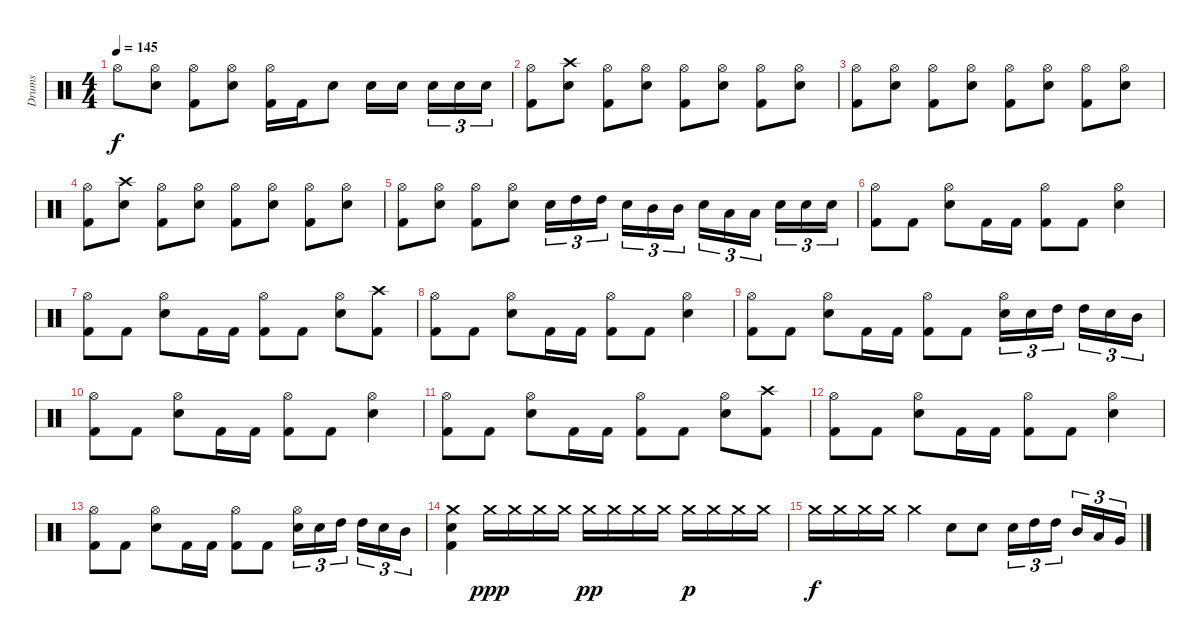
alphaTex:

\track ("Drums" "Drums") {instrument percussion}
\staff {score}
\articulation defaults
\ts (4 4)
\tempo 145
\clef neutral
\ks c "Hi-Hat (open)".8{dy f}
("Hi-Hat (open)" "Snare (hit) 2").8 ("Hi-Hat (open)" "Kick (hit) 2").8 ("Hi-Hat (open)" "Snare (hit) 2").8 ("Hi-Hat (open)" "Kick (hit) 2").16 "Kick (hit) 2".16 "Snare (hit) 2".8 "Snare (hit) 2".16 "Snare (hit) 2".16 "Snare (hit) 2".16{tu (3 2)} "Snare (hit) 2".16{tu (3 2)} "Snare (hit) 2".16{tu (3 2)} |
("Hi-Hat (open)" "Kick (hit) 2").8 ("Crash high (hit)" "Snare (hit) 2").8 ("Hi-Hat (open)" "Kick (hit) 2").8 ("Hi-Hat (open)" "Snare (hit) 2").8 ("Hi-Hat (open)" "Kick (hit) 2").8 ("Hi-Hat (open)" "Snare (hit) 2").8 ("Hi-Hat (open)" "Kick (hit) 2").8 ("Hi-Hat (open)" "Snare (hit) 2").8 |
("Hi-Hat (open)" "Kick (hit) 2").8 ("Hi-Hat (open)" "Snare (hit) 2").8 ("Hi-Hat (open)" "Kick (hit) 2").8 ("Hi-Hat (open)" "Snare (hit) 2").8 ("Hi-Hat (open)" "Kick (hit) 2").8 ("Hi-Hat (open)" "Snare (hit) 2").8 ("Hi-Hat (open)" "Kick (hit) 2").8 ("Hi-Hat (open)" "Snare (hit) 2").8 |
("Hi-Hat (open)" "Kick (hit) 2").8 ("Crash high (hit)" "Snare (hit) 2").8 ("Hi-Hat (open)" "Kick (hit) 2").8 ("Hi-Hat (open)" "Snare (hit) 2").8 ("Hi-Hat (open)" "Kick (hit) 2").8 ("Hi-Hat (open)" "Snare (hit) 2").8 ("Hi-Hat (open)" "Kick (hit) 2").8 ("Hi-Hat (open)" "Snare (hit) 2").8 |
("Hi-Hat (open)" "Kick (hit) 2").8 ("Hi-Hat (open)" "Snare (hit) 2").8 ("Hi-Hat (open)" "Kick (hit) 2").8 ("Hi-Hat (open)" "Snare (hit) 2").8 "Snare (hit) 2".16{tu (3 2)} "High Tom (hit)".16{tu (3 2)} "High Tom (hit)".16{tu (3 2)} "Snare (hit) 2".16{tu (3 2)} "Mid Tom (hit)".16{tu (3 2)} "Mid Tom (hit)".16{tu (3 2)} "Snare (hit) 2".16{tu (3 2)} "Low Tom (hit)".16{tu (3 2)} "Low Tom (hit)".16{tu (3 2)} "Snare (hit) 2".16{tu (3 2)} "Snare (hit) 2".16{tu (3 2)} "Snare (hit) 2".16{tu (3 2)} |
("Hi-Hat (open)" "Kick (hit) 2").8 "Kick (hit) 2".8 ("Hi-Hat (open)" "Snare (hit) 2").8 "Kick (hit) 2".16 "Kick (hit) 2".16 ("Hi-Hat (open)" "Kick (hit) 2").8 "Kick (hit) 2".8 ("Hi-Hat (open)" "Snare (hit) 2").4 |
("Hi-Hat (open)" "Kick (hit) 2").8 "Kick (hit) 2".8 ("Hi-Hat (open)" "Snare (hit) 2").8 "Kick (hit) 2".16 "Kick (hit) 2".16 ("Hi-Hat (open)" "Kick (hit) 2").8 "Kick (hit) 2".8 ("Hi-Hat (open)" "Snare (hit) 2").8 ("Crash high (hit)" "Kick (hit) 2").8 |
("Hi-Hat (open)" "Kick (hit) 2").8 "Kick (hit) 2".8 ("Hi-Hat (open)" "Snare (hit) 2").8 "Kick (hit) 2".16 "Kick (hit) 2".16 ("Hi-Hat (open)" "Kick (hit) 2").8 "Kick (hit) 2".8 ("Hi-Hat (open)" "Snare (hit) 2").4 |
("Hi-Hat (open)" "Kick (hit) 2").8 "Kick (hit) 2".8 ("Hi-Hat (open)" "Snare (hit) 2").8 "Kick (hit) 2".16 "Kick (hit) 2".16 ("Hi-Hat (open)" "Kick (hit) 2").8 "Kick (hit) 2".8 ("Hi-Hat (open)" "Snare (hit) 2").16{tu (3 2)} "Snare (hit) 2".16{tu (3 2)} "High Tom (hit)".16{tu (3 2)} "High Tom (hit)".16{tu (3 2)} "Snare (hit) 2".16{tu (3 2)} "Mid Tom (hit)".16{tu (3 2)} |
("Hi-Hat (open)" "Kick (hit) 2").8 "Kick (hit) 2".8 ("Hi-Hat (open)" "Snare (hit) 2").8 "Kick (hit) 2".16 "Kick (hit) 2".16 ("Hi-Hat (open)" "Kick (hit) 2").8 "Kick (hit) 2".8 ("Hi-Hat (open)" "Snare (hit) 2").4 |
("Hi-Hat (open)" "Kick (hit) 2").8 "Kick (hit) 2".8 ("Hi-Hat (open)" "Snare (hit) 2").8 "Kick (hit) 2".16 "Kick (hit) 2".16 ("Hi-Hat (open)" "Kick (hit) 2").8 "Kick (hit) 2".8 ("Hi-Hat (open)" "Snare (hit) 2").8 ("Crash high (hit)" "Kick (hit) 2").8 |
("Hi-Hat (open)" "Kick (hit) 2").8 "Kick (hit) 2".8 ("Hi-Hat (open)" "Snare (hit) 2").8 "Kick (hit) 2".16 "Kick (hit) 2".16 ("Hi-Hat (open)" "Kick (hit) 2").8 "Kick (hit) 2".8 ("Hi-Hat (open)" "Snare (hit) 2").4 |
("Hi-Hat (open)" "Kick (hit) 2").8 "Kick (hit) 2".8 ("Hi-Hat (open)" "Snare (hit) 2").8 "Kick (hit) 2".16 "Kick (hit) 2".16 ("Hi-Hat (open)" "Kick (hit) 2").8 "Kick (hit) 2".8 ("Hi-Hat (open)" "Snare (hit) 2").16{tu (3 2)} "Snare (hit) 2".16{tu (3 2)} "High Tom (hit)".16{tu (3 2)} "High Tom (hit)".16{tu (3 2)} "Snare (hit) 2".16{tu (3 2)} "Mid Tom (hit)".16{tu (3 2)} |
("Crash medium (hit)" "Snare (hit) 2" "Kick (hit) 2").4 "Crash medium (hit)".16{dy ppp volume 2} "Crash medium (hit)".16{volume 11} "Crash medium (hit)".16 "Crash medium (hit)".16 "Crash medium (hit)".16{dy pp} "Crash medium (hit)".16 "Crash medium (hit)".16 "Crash medium (hit)".16 "Crash medium (hit)".16{dy p} "Crash medium (hit)".16 "Crash medium (hit)".16 "Crash medium (hit)".16 |
"Crash medium (hit)".16{dy f} "Crash medium (hit)".16 "Crash medium (hit)".16 "Crash medium (hit)".16 "Crash medium (hit)".4 "Snare (hit) 2".8 "Snare (hit) 2".8 "Snare (hit) 2".16{tu (3 2)} "High Tom (hit)".16{tu (3 2)} "High Tom (hit)".16{tu (3 2)} "Mid Tom (hit)".16{tu (3 2)} "Low Tom (hit)".16{tu (3 2)} "Very Low Tom (hit)".16{tu (3 2)}
